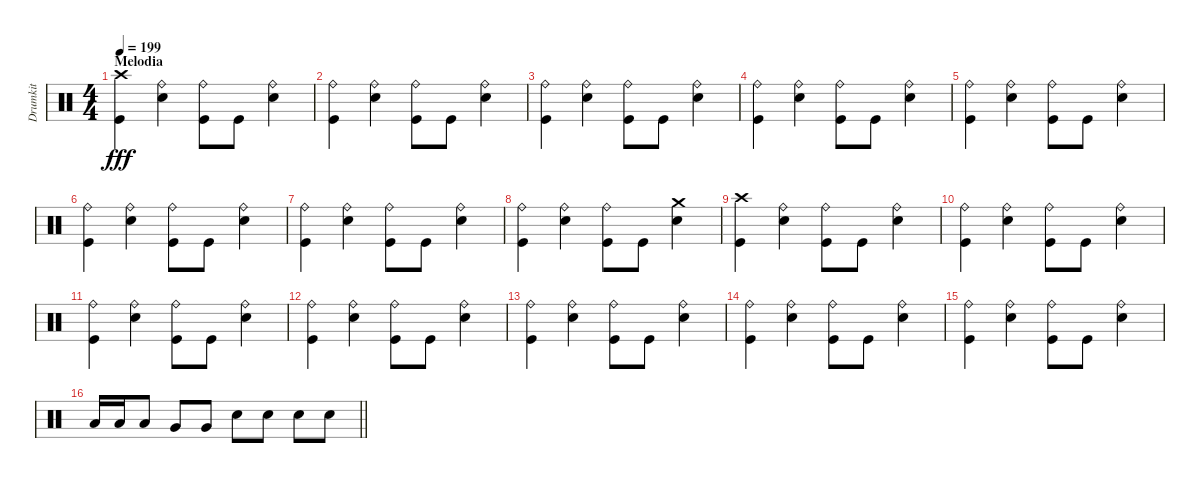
\track ("Drumkit" "Drumkit") {instrument percussion}
\staff
\articulation defaults
\ts (4 4)
\section ("" "Melodia")
\tempo 199
\clef neutral
\ks c
("Crash high (hit)" "Kick (hit)").4{dy fff} ("Snare (hit) 2" "Ride (bell)").4 ("Kick (hit)" "Ride (bell)").8 "Kick (hit)".8 ("Snare (hit) 2" "Ride (bell)").4 |
("Kick (hit)" "Ride (bell)").4 ("Snare (hit) 2" "Ride (bell)").4 ("Kick (hit)" "Ride (bell)").8 "Kick (hit)".8 ("Snare (hit) 2" "Ride (bell)").4 |
("Kick (hit)" "Ride (bell)").4 ("Snare (hit) 2" "Ride (bell)").4 ("Kick (hit)" "Ride (bell)").8 "Kick (hit)".8 ("Snare (hit) 2" "Ride (bell)").4 |
("Kick (hit)" "Ride (bell)").4 ("Snare (hit) 2" "Ride (bell)").4 ("Kick (hit)" "Ride (bell)").8 "Kick (hit)".8 ("Snare (hit) 2" "Ride (bell)").4 |
("Kick (hit)" "Ride (bell)").4 ("Snare (hit) 2" "Ride (bell)").4 ("Kick (hit)" "Ride (bell)").8 "Kick (hit)".8 ("Snare (hit) 2" "Ride (bell)").4 |
("Kick (hit)" "Ride (bell)").4 ("Snare (hit) 2" "Ride (bell)").4 ("Kick (hit)" "Ride (bell)").8 "Kick (hit)".8 ("Snare (hit) 2" "Ride (bell)").4 |
("Kick (hit)" "Ride (bell)").4 ("Snare (hit) 2" "Ride (bell)").4 ("Kick (hit)" "Ride (bell)").8 "Kick (hit)".8 ("Snare (hit) 2" "Ride (bell)").4 |
("Kick (hit)" "Ride (bell)").4 ("Snare (hit) 2" "Ride (bell)").4 ("Kick (hit)" "Ride (bell)").8 "Kick (hit)".8 ("Snare (hit) 2" "Crash medium (hit)").4 |
("Kick (hit)" "Crash high (hit)").4 ("Snare (hit) 2" "Ride (bell)").4 ("Kick (hit)" "Ride (bell)").8 "Kick (hit)".8 ("Snare (hit) 2" "Ride (bell)").4 |
("Kick (hit)" "Ride (bell)").4 ("Snare (hit) 2" "Ride (bell)").4 ("Kick (hit)" "Ride (bell)").8 "Kick (hit)".8 ("Snare (hit) 2" "Ride (bell)").4 |
("Kick (hit)" "Ride (bell)").4 ("Snare (hit) 2" "Ride (bell)").4 ("Kick (hit)" "Ride (bell)").8 "Kick (hit)".8 ("Snare (hit) 2" "Ride (bell)").4 |
("Kick (hit)" "Ride (bell)").4 ("Snare (hit) 2" "Ride (bell)").4 ("Kick (hit)" "Ride (bell)").8 "Kick (hit)".8 ("Snare (hit) 2" "Ride (bell)").4 |
("Kick (hit)" "Ride (bell)").4 ("Snare (hit) 2" "Ride (bell)").4 ("Kick (hit)" "Ride (bell)").8 "Kick (hit)".8 ("Snare (hit) 2" "Ride (bell)").4 |
("Kick (hit)" "Ride (bell)").4 ("Snare (hit) 2" "Ride (bell)").4 ("Kick (hit)" "Ride (bell)").8 "Kick (hit)".8 ("Snare (hit) 2" "Ride (bell)").4 |
("Kick (hit)" "Ride (bell)").4 ("Snare (hit) 2" "Ride (bell)").4 ("Kick (hit)" "Ride (bell)").8 "Kick (hit)".8 ("Snare (hit) 2" "Ride (bell)").4 |
\barLineRight lightlight "Low Tom (hit)".16 "Low Tom (hit)".16 "Low Tom (hit)".8 "Very Low Tom (hit)".8 "Very Low Tom (hit)".8 "Snare (hit) 2".8 "Snare (hit) 2".8 "Snare (hit) 2".8 "Snare (hit) 2".8
